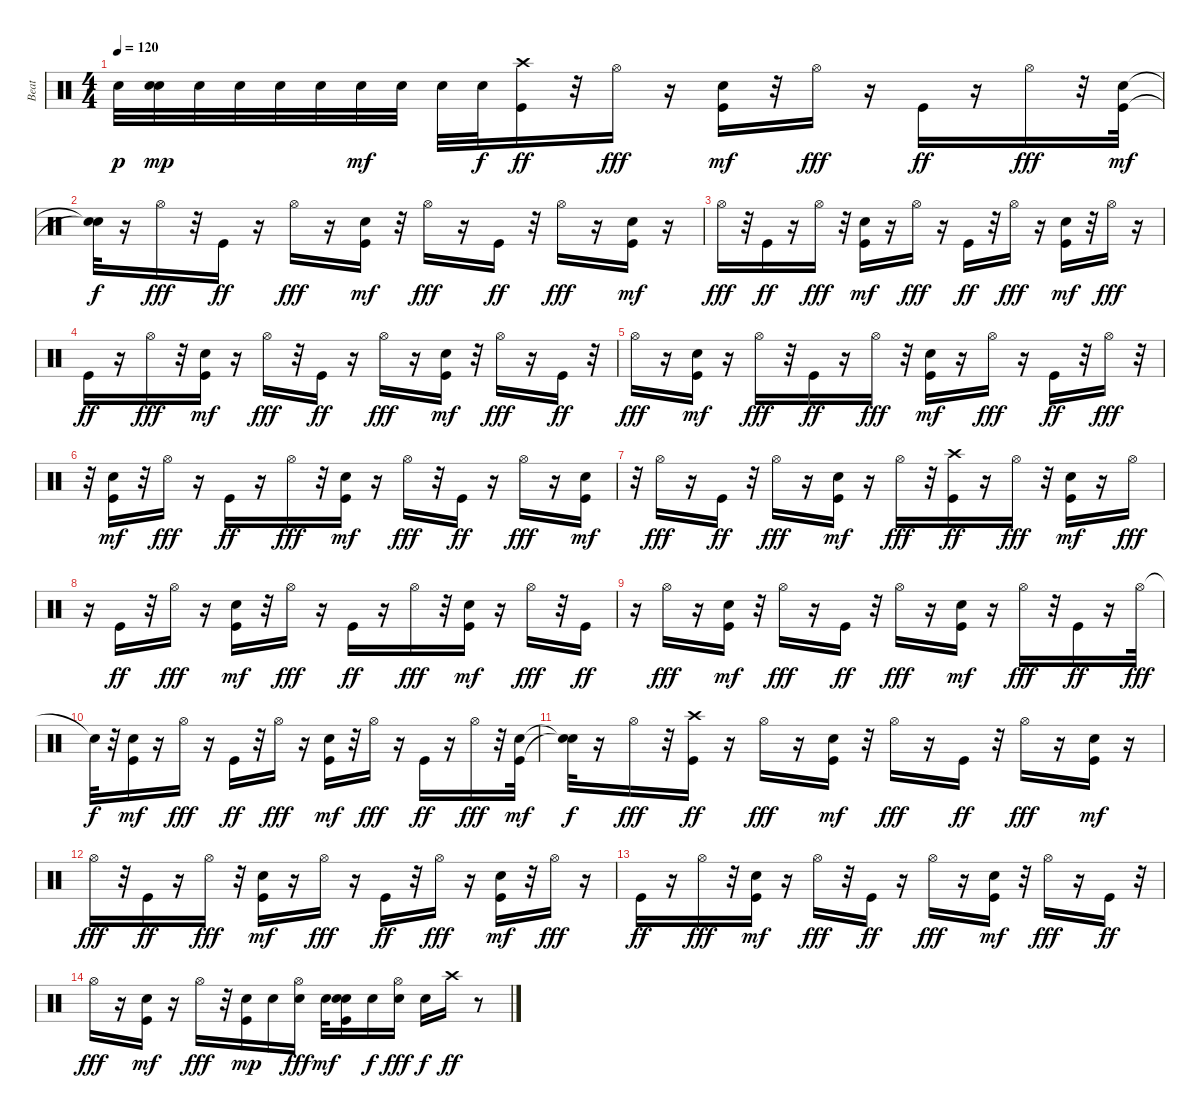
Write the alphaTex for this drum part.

\track ("Beat" "Beat") {instrument percussion}
\staff {score}
\articulation defaults
\ts (4 4)
\tempo 120
\clef neutral
\ks c "Snare (hit) 2".32{dy p}
("Snare (hit) 2" "Snare (hit) 2").32{dy mp} "Snare (hit) 2".32 "Snare (hit) 2".32 "Snare (hit) 2".32 "Snare (hit) 2".32 "Snare (hit) 2".32{dy mf} "Snare (hit) 2".32 "Snare (hit) 2".32 "Snare (hit) 2".32{dy f} ("Crash high (hit)" "Kick (hit)").16{dy ff} r.32 "Hi-Hat (open)".16{dy fff} r.16 ("Kick (hit)" "Hand Clap (hit)").16{dy mf} r.32 "Hi-Hat (open)".16{dy fff} r.16 "Kick (hit)".16{dy ff} r.16 "Hi-Hat (open)".16{dy fff} r.32 ("Kick (hit)" "Hand Clap (hit)").32{dy mf} |
("Snare (hit)"{t} "Snare (hit)"{t}).32{dy f} r.16 "Hi-Hat (open)".16{dy fff} r.32 "Kick (hit)".16{dy ff} r.16 "Hi-Hat (open)".16{dy fff} r.16 ("Kick (hit)" "Hand Clap (hit)").16{dy mf} r.32 "Hi-Hat (open)".16{dy fff} r.16 "Kick (hit)".16{dy ff} r.32 "Hi-Hat (open)".16{dy fff} r.16 ("Kick (hit)" "Hand Clap (hit)").16{dy mf} r.16 |
"Hi-Hat (open)".16{dy fff} r.32 "Kick (hit)".16{dy ff} r.16 "Hi-Hat (open)".16{dy fff} r.32 ("Kick (hit)" "Hand Clap (hit)").16{dy mf} r.16 "Hi-Hat (open)".16{dy fff} r.16 "Kick (hit)".16{dy ff} r.32 "Hi-Hat (open)".16{dy fff} r.16 ("Kick (hit)" "Hand Clap (hit)").16{dy mf} r.32 "Hi-Hat (open)".16{dy fff} r.16 |
"Kick (hit)".16{dy ff} r.16 "Hi-Hat (open)".16{dy fff} r.32 ("Kick (hit)" "Hand Clap (hit)").16{dy mf} r.16 "Hi-Hat (open)".16{dy fff} r.32 "Kick (hit)".16{dy ff} r.16 "Hi-Hat (open)".16{dy fff} r.16 ("Kick (hit)" "Hand Clap (hit)").16{dy mf} r.32 "Hi-Hat (open)".16{dy fff} r.16 "Kick (hit)".16{dy ff} r.32 |
"Hi-Hat (open)".16{dy fff} r.16 ("Kick (hit)" "Hand Clap (hit)").16{dy mf} r.16 "Hi-Hat (open)".16{dy fff} r.32 "Kick (hit)".16{dy ff} r.16 "Hi-Hat (open)".16{dy fff} r.32 ("Kick (hit)" "Hand Clap (hit)").16{dy mf} r.16 "Hi-Hat (open)".16{dy fff} r.16 "Kick (hit)".16{dy ff} r.32 "Hi-Hat (open)".16{dy fff} r.32 |
r.32 ("Kick (hit)" "Hand Clap (hit)").16{dy mf} r.32 "Hi-Hat (open)".16{dy fff} r.16 "Kick (hit)".16{dy ff} r.16 "Hi-Hat (open)".16{dy fff} r.32 ("Kick (hit)" "Hand Clap (hit)").16{dy mf} r.16 "Hi-Hat (open)".16{dy fff} r.32 "Kick (hit)".16{dy ff} r.16 "Hi-Hat (open)".16{dy fff} r.16 ("Kick (hit)" "Hand Clap (hit)").16{dy mf} |
r.32 "Hi-Hat (open)".16{dy fff} r.16 "Kick (hit)".16{dy ff} r.32 "Hi-Hat (open)".16{dy fff} r.16 ("Kick (hit)" "Hand Clap (hit)").16{dy mf} r.16 "Hi-Hat (open)".16{dy fff} r.32 ("Kick (hit)" "Crash high (hit)").16{dy ff} r.16 "Hi-Hat (open)".16{dy fff} r.32 ("Kick (hit)" "Hand Clap (hit)").16{dy mf} r.16 "Hi-Hat (open)".16{dy fff} |
r.16 "Kick (hit)".16{dy ff} r.32 "Hi-Hat (open)".16{dy fff} r.16 ("Kick (hit)" "Hand Clap (hit)").16{dy mf} r.32 "Hi-Hat (open)".16{dy fff} r.16 "Kick (hit)".16{dy ff} r.16 "Hi-Hat (open)".16{dy fff} r.32 ("Kick (hit)" "Hand Clap (hit)").16{dy mf} r.16 "Hi-Hat (open)".16{dy fff} r.32 "Kick (hit)".16{dy ff} |
r.16 "Hi-Hat (open)".16{dy fff} r.16 ("Kick (hit)" "Hand Clap (hit)").16{dy mf} r.32 "Hi-Hat (open)".16{dy fff} r.16 "Kick (hit)".16{dy ff} r.32 "Hi-Hat (open)".16{dy fff} r.16 ("Kick (hit)" "Hand Clap (hit)").16{dy mf} r.16 "Hi-Hat (open)".16{dy fff} r.32 "Kick (hit)".16{dy ff} r.16 "Hi-Hat (open)".32{dy fff} |
"Snare (hit)"{t}.32{dy f} r.32 ("Kick (hit)" "Hand Clap (hit)").16{dy mf} r.16 "Hi-Hat (open)".16{dy fff} r.16 "Kick (hit)".16{dy ff} r.32 "Hi-Hat (open)".16{dy fff} r.16 ("Kick (hit)" "Hand Clap (hit)").16{dy mf} r.32 "Hi-Hat (open)".16{dy fff} r.16 "Kick (hit)".16{dy ff} r.16 "Hi-Hat (open)".16{dy fff} r.32 ("Kick (hit)" "Hand Clap (hit)").32{dy mf} |
("Snare (hit)"{t} "Snare (hit)"{t}).32{dy f} r.16 "Hi-Hat (open)".16{dy fff} r.32 ("Crash high (hit)" "Kick (hit)").16{dy ff} r.16 "Hi-Hat (open)".16{dy fff} r.16 ("Kick (hit)" "Hand Clap (hit)").16{dy mf} r.32 "Hi-Hat (open)".16{dy fff} r.16 "Kick (hit)".16{dy ff} r.32 "Hi-Hat (open)".16{dy fff} r.16 ("Kick (hit)" "Hand Clap (hit)").16{dy mf} r.16 |
"Hi-Hat (open)".16{dy fff} r.32 "Kick (hit)".16{dy ff} r.16 "Hi-Hat (open)".16{dy fff} r.32 ("Kick (hit)" "Hand Clap (hit)").16{dy mf} r.16 "Hi-Hat (open)".16{dy fff} r.16 "Kick (hit)".16{dy ff} r.32 "Hi-Hat (open)".16{dy fff} r.16 ("Kick (hit)" "Hand Clap (hit)").16{dy mf} r.32 "Hi-Hat (open)".16{dy fff} r.16 |
"Kick (hit)".16{dy ff} r.16 "Hi-Hat (open)".16{dy fff} r.32 ("Kick (hit)" "Hand Clap (hit)").16{dy mf} r.16 "Hi-Hat (open)".16{dy fff} r.32 "Kick (hit)".16{dy ff} r.16 "Hi-Hat (open)".16{dy fff} r.16 ("Kick (hit)" "Hand Clap (hit)").16{dy mf} r.32 "Hi-Hat (open)".16{dy fff} r.16 "Kick (hit)".16{dy ff} r.32 |
"Hi-Hat (open)".16{dy fff} r.16 ("Kick (hit)" "Hand Clap (hit)").16{dy mf} r.16 "Hi-Hat (open)".16{dy fff} r.32 ("Kick (hit)" "Snare (hit) 2").16{dy mp} "Snare (hit) 2".16 ("Snare (hit) 2" "Hi-Hat (open)").16{dy fff} "Snare (hit) 2".32{dy mf} ("Kick (hit)" "Snare (hit) 2" "Hand Clap (hit)").16 "Snare (hit) 2".16{dy f} ("Snare (hit) 2" "Hi-Hat (open)").16{dy fff} "Snare (hit) 2".16{dy f} "Crash high (hit)".16{dy ff} r.8
